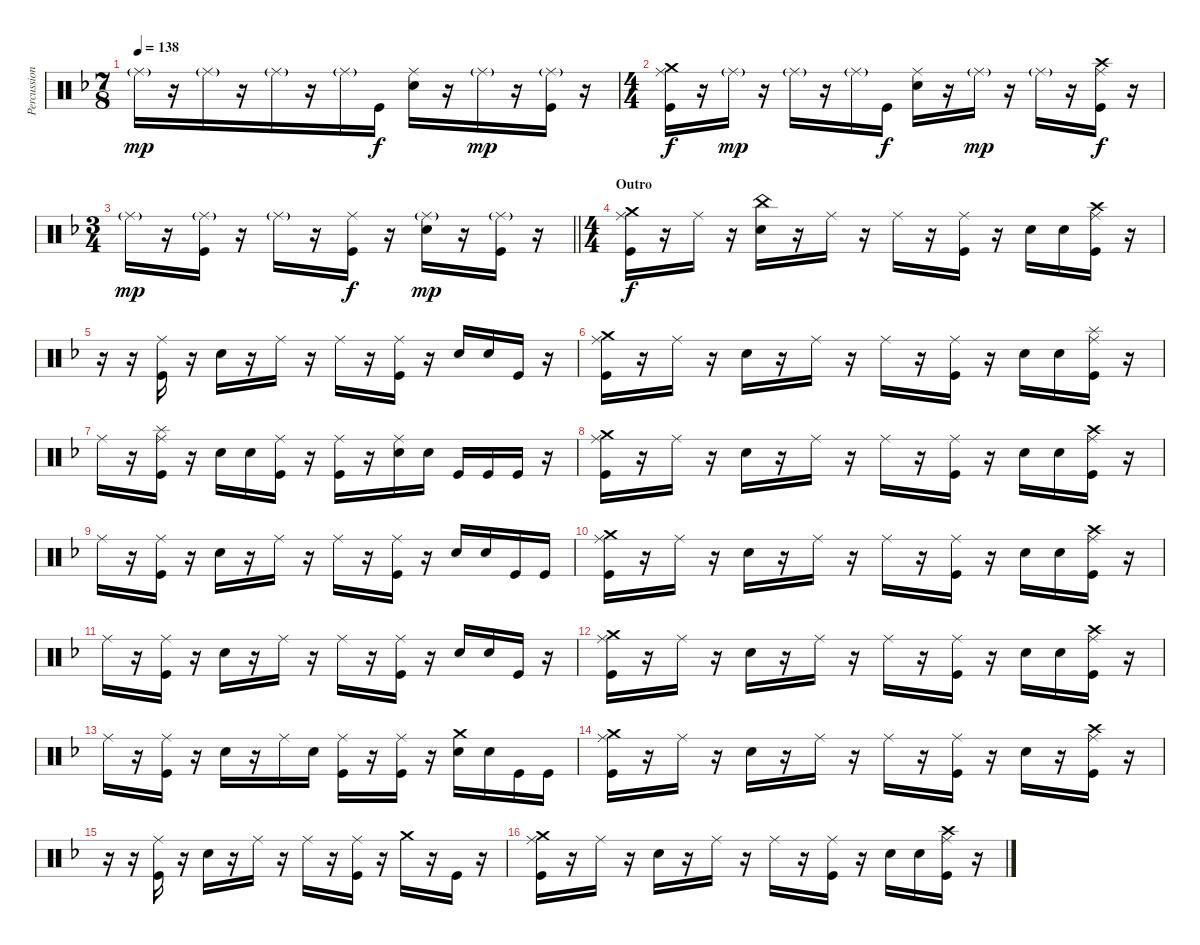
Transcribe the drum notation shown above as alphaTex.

\track ("Percussion" "Percussion") {instrument percussion}
\staff {score}
\articulation defaults
\ts (7 8)
\tempo 138
\clef neutral
\ks f "Ride (middle)"{g}.16{dy mp}
r.16 "Ride (middle)"{g}.16 r.16 "Ride (middle)"{g}.16 r.16 "Ride (middle)"{g}.16 "Kick (hit)".16{dy f} ("Ride (middle)" "Electric Snare (hit)").16 r.16 "Ride (middle)"{g}.16{dy mp} r.16 ("Ride (middle)"{g} "Kick (hit)").16 r.16 |
\ts (4 4)
("Ride (middle)" "Crash medium (hit)" "Kick (hit)").16{dy f} r.16 "Ride (middle)"{g}.16{dy mp} r.16 "Ride (middle)"{g}.16 r.16 "Ride (middle)"{g}.16 "Kick (hit)".16{dy f} ("Ride (middle)" "Electric Snare (hit)").16 r.16 "Ride (middle)"{g}.16{dy mp} r.16 "Ride (middle)"{g}.16 r.16 ("Ride (middle)" "Crash high (hit)" "Kick (hit)").16{dy f} r.16 |
\ts (3 4)
\barLineRight lightlight "Ride (middle)"{g}.16{dy mp}
r.16 ("Ride (middle)"{g} "Kick (hit)").16 r.16 "Ride (middle)"{g}.16 r.16 ("Ride (middle)" "Kick (hit)").16{dy f} r.16 ("Ride (middle)"{g} "Electric Snare (hit)").16{dy mp} r.16 ("Ride (middle)"{g} "Kick (hit)").16 r.16 |
\ts (4 4)
\section ("" "Outro")
("Ride (middle)" "Crash medium (hit)" "Kick (hit)").16{dy f} r.16 "Ride (middle)".16 r.16 ("China (hit)" "Electric Snare (hit)").16 r.16 "Ride (middle)".16 r.16 "Ride (middle)".16 r.16 ("Ride (middle)" "Kick (hit)").16 r.16 "Electric Snare (hit)".16 "Electric Snare (hit)".16 ("Ride (middle)" "Crash high (hit)" "Kick (hit)").16 r.16 |
r.16 r.16 ("Ride (middle)" "Kick (hit)").16 r.16 "Electric Snare (hit)".16 r.16 "Ride (middle)".16 r.16 "Ride (middle)".16 r.16 ("Ride (middle)" "Kick (hit)").16 r.16 "Electric Snare (hit)".16 "Electric Snare (hit)".16 "Kick (hit)".16 r.16 |
("Ride (middle)" "Crash medium (hit)" "Kick (hit)").16 r.16 "Ride (middle)".16 r.16 "Electric Snare (hit)".16 r.16 "Ride (middle)".16 r.16 "Ride (middle)".16 r.16 ("Ride (middle)" "Kick (hit)").16 r.16 "Electric Snare (hit)".16 "Electric Snare (hit)".16 ("Ride (middle)" "Splash (hit)" "Kick (hit)").16 r.16 |
"Ride (middle)".16 r.16 ("Ride (middle)" "Splash (hit)" "Kick (hit)").16 r.16 "Electric Snare (hit)".16 "Electric Snare (hit)".16 ("Ride (middle)" "Kick (hit)").16 r.16 ("Ride (middle)" "Kick (hit)").16 r.16 ("Ride (middle)" "Electric Snare (hit)").16 "Electric Snare (hit)".16 "Kick (hit)".16 "Kick (hit)".16 "Kick (hit)".16 r.16 |
("Ride (middle)" "Crash medium (hit)" "Kick (hit)").16 r.16 "Ride (middle)".16 r.16 "Electric Snare (hit)".16 r.16 "Ride (middle)".16 r.16 "Ride (middle)".16 r.16 ("Ride (middle)" "Kick (hit)").16 r.16 "Electric Snare (hit)".16 "Electric Snare (hit)".16 ("Ride (middle)" "Crash high (hit)" "Kick (hit)").16 r.16 |
"Ride (middle)".16 r.16 ("Ride (middle)" "Kick (hit)").16 r.16 "Electric Snare (hit)".16 r.16 "Ride (middle)".16 r.16 "Ride (middle)".16 r.16 ("Ride (middle)" "Kick (hit)").16 r.16 "Electric Snare (hit)".16 "Electric Snare (hit)".16 "Kick (hit)".16 "Kick (hit)".16 |
("Ride (middle)" "Crash medium (hit)" "Kick (hit)").16 r.16 "Ride (middle)".16 r.16 "Electric Snare (hit)".16 r.16 "Ride (middle)".16 r.16 "Ride (middle)".16 r.16 ("Ride (middle)" "Kick (hit)").16 r.16 "Electric Snare (hit)".16 "Electric Snare (hit)".16 ("Ride (middle)" "Crash high (hit)" "Kick (hit)").16 r.16 |
"Ride (middle)".16 r.16 ("Ride (middle)" "Kick (hit)").16 r.16 "Electric Snare (hit)".16 r.16 "Ride (middle)".16 r.16 "Ride (middle)".16 r.16 ("Ride (middle)" "Kick (hit)").16 r.16 "Electric Snare (hit)".16 "Electric Snare (hit)".16 "Kick (hit)".16 r.16 |
("Ride (middle)" "Crash medium (hit)" "Kick (hit)").16 r.16 "Ride (middle)".16 r.16 "Electric Snare (hit)".16 r.16 "Ride (middle)".16 r.16 "Ride (middle)".16 r.16 ("Ride (middle)" "Kick (hit)").16 r.16 "Electric Snare (hit)".16 "Electric Snare (hit)".16 ("Ride (middle)" "Crash high (hit)" "Kick (hit)").16 r.16 |
"Ride (middle)".16 r.16 ("Ride (middle)" "Kick (hit)").16 r.16 "Electric Snare (hit)".16 r.16 "Ride (middle)".16 "Electric Snare (hit)".16 ("Ride (middle)" "Kick (hit)").16 r.16 ("Ride (middle)" "Kick (hit)").16 r.16 ("Crash medium (hit)" "Electric Snare (hit)").16 "Electric Snare (hit)".16 "Kick (hit)".16 "Kick (hit)".16 |
("Ride (middle)" "Crash medium (hit)" "Kick (hit)").16 r.16 "Ride (middle)".16 r.16 "Electric Snare (hit)".16 r.16 "Ride (middle)".16 r.16 "Ride (middle)".16 r.16 ("Ride (middle)" "Kick (hit)").16 r.16 "Electric Snare (hit)".16 r.16 ("Ride (middle)" "Crash high (hit)" "Kick (hit)").16 r.16 |
r.16 r.16 ("Ride (middle)" "Kick (hit)").16 r.16 "Electric Snare (hit)".16 r.16 "Ride (middle)".16 r.16 "Ride (middle)".16 r.16 ("Ride (middle)" "Kick (hit)").16 r.16 "Crash medium (hit)".16 r.16 "Kick (hit)".16 r.16 |
("Ride (middle)" "Crash medium (hit)" "Kick (hit)").16 r.16 "Ride (middle)".16 r.16 "Electric Snare (hit)".16 r.16 "Ride (middle)".16 r.16 "Ride (middle)".16 r.16 ("Ride (middle)" "Kick (hit)").16 r.16 "Electric Snare (hit)".16 "Electric Snare (hit)".16 ("Ride (middle)" "Crash high (hit)" "Kick (hit)").16 r.16
